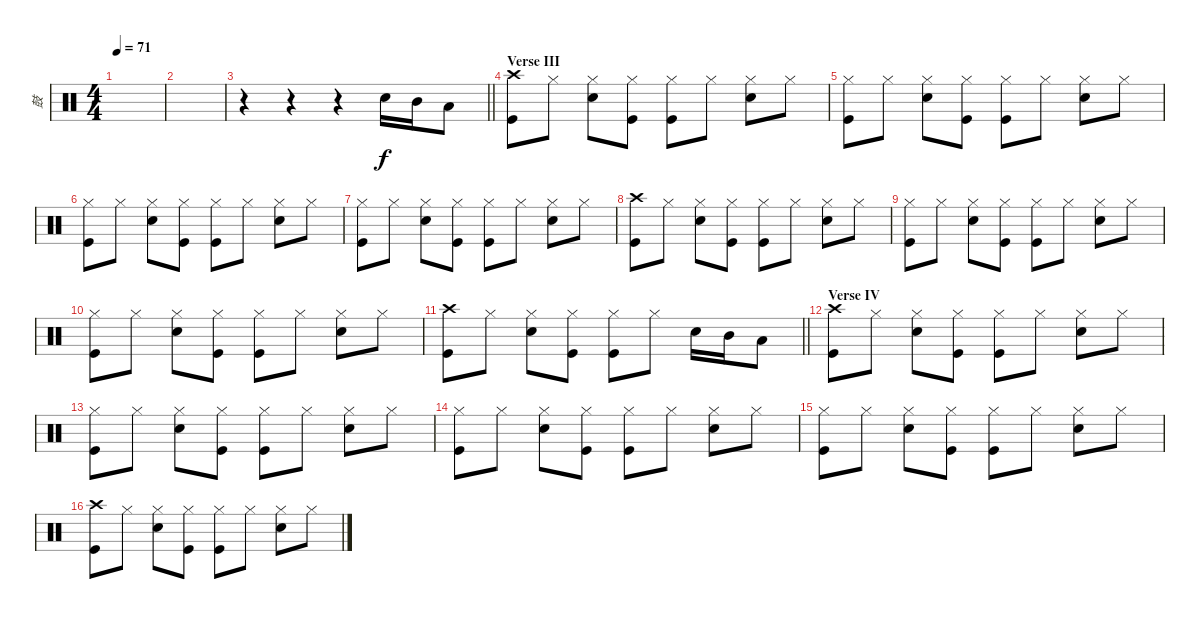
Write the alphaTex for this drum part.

\track ("鼓" "鼓") {instrument percussion}
\staff {score}
\articulation defaults
\ts (4 4)
\tempo 71
\clef neutral
\ks c
|
|
\barLineRight lightlight
r.4 r.4 r.4 "Electric Snare (hit)".16 "Mid Tom (hit)".16 "Low Tom (hit)".8 |
\section ("" "Verse III")
("Crash high (hit)" "Kick (hit)").8 "Hi-Hat (closed)".8 ("Hi-Hat (closed)" "Electric Snare (hit)").8 ("Hi-Hat (closed)" "Kick (hit)").8 ("Hi-Hat (closed)" "Kick (hit)").8 "Hi-Hat (closed)".8 ("Hi-Hat (closed)" "Electric Snare (hit)").8 "Hi-Hat (closed)".8 |
("Hi-Hat (closed)" "Kick (hit)").8 "Hi-Hat (closed)".8 ("Hi-Hat (closed)" "Electric Snare (hit)").8 ("Hi-Hat (closed)" "Kick (hit)").8 ("Hi-Hat (closed)" "Kick (hit)").8 "Hi-Hat (closed)".8 ("Hi-Hat (closed)" "Electric Snare (hit)").8 "Hi-Hat (closed)".8 |
("Hi-Hat (closed)" "Kick (hit)").8 "Hi-Hat (closed)".8 ("Hi-Hat (closed)" "Electric Snare (hit)").8 ("Hi-Hat (closed)" "Kick (hit)").8 ("Hi-Hat (closed)" "Kick (hit)").8 "Hi-Hat (closed)".8 ("Hi-Hat (closed)" "Electric Snare (hit)").8 "Hi-Hat (closed)".8 |
("Hi-Hat (closed)" "Kick (hit)").8 "Hi-Hat (closed)".8 ("Hi-Hat (closed)" "Electric Snare (hit)").8 ("Hi-Hat (closed)" "Kick (hit)").8 ("Hi-Hat (closed)" "Kick (hit)").8 "Hi-Hat (closed)".8 ("Hi-Hat (closed)" "Electric Snare (hit)").8 "Hi-Hat (closed)".8 |
("Crash high (hit)" "Kick (hit)").8 "Hi-Hat (closed)".8 ("Hi-Hat (closed)" "Electric Snare (hit)").8 ("Hi-Hat (closed)" "Kick (hit)").8 ("Hi-Hat (closed)" "Kick (hit)").8 "Hi-Hat (closed)".8 ("Hi-Hat (closed)" "Electric Snare (hit)").8 "Hi-Hat (closed)".8 |
("Hi-Hat (closed)" "Kick (hit)").8 "Hi-Hat (closed)".8 ("Hi-Hat (closed)" "Electric Snare (hit)").8 ("Hi-Hat (closed)" "Kick (hit)").8 ("Hi-Hat (closed)" "Kick (hit)").8 "Hi-Hat (closed)".8 ("Hi-Hat (closed)" "Electric Snare (hit)").8 "Hi-Hat (closed)".8 |
("Hi-Hat (closed)" "Kick (hit)").8 "Hi-Hat (closed)".8 ("Hi-Hat (closed)" "Electric Snare (hit)").8 ("Hi-Hat (closed)" "Kick (hit)").8 ("Hi-Hat (closed)" "Kick (hit)").8 "Hi-Hat (closed)".8 ("Hi-Hat (closed)" "Electric Snare (hit)").8 "Hi-Hat (closed)".8 |
\barLineRight lightlight
("Crash high (hit)" "Kick (hit)").8 "Hi-Hat (closed)".8 ("Hi-Hat (closed)" "Electric Snare (hit)").8 ("Hi-Hat (closed)" "Kick (hit)").8 ("Hi-Hat (closed)" "Kick (hit)").8 "Hi-Hat (closed)".8 "Electric Snare (hit)".16 "Mid Tom (hit)".16 "Low Tom (hit)".8 |
\section ("" "Verse IV")
("Crash high (hit)" "Kick (hit)").8 "Hi-Hat (closed)".8 ("Hi-Hat (closed)" "Electric Snare (hit)").8 ("Hi-Hat (closed)" "Kick (hit)").8 ("Hi-Hat (closed)" "Kick (hit)").8 "Hi-Hat (closed)".8 ("Hi-Hat (closed)" "Electric Snare (hit)").8 "Hi-Hat (closed)".8 |
("Hi-Hat (closed)" "Kick (hit)").8 "Hi-Hat (closed)".8 ("Hi-Hat (closed)" "Electric Snare (hit)").8 ("Hi-Hat (closed)" "Kick (hit)").8 ("Hi-Hat (closed)" "Kick (hit)").8 "Hi-Hat (closed)".8 ("Hi-Hat (closed)" "Electric Snare (hit)").8 "Hi-Hat (closed)".8 |
("Hi-Hat (closed)" "Kick (hit)").8 "Hi-Hat (closed)".8 ("Hi-Hat (closed)" "Electric Snare (hit)").8 ("Hi-Hat (closed)" "Kick (hit)").8 ("Hi-Hat (closed)" "Kick (hit)").8 "Hi-Hat (closed)".8 ("Hi-Hat (closed)" "Electric Snare (hit)").8 "Hi-Hat (closed)".8 |
("Hi-Hat (closed)" "Kick (hit)").8 "Hi-Hat (closed)".8 ("Hi-Hat (closed)" "Electric Snare (hit)").8 ("Hi-Hat (closed)" "Kick (hit)").8 ("Hi-Hat (closed)" "Kick (hit)").8 "Hi-Hat (closed)".8 ("Hi-Hat (closed)" "Electric Snare (hit)").8 "Hi-Hat (closed)".8 |
("Crash high (hit)" "Kick (hit)").8 "Hi-Hat (closed)".8 ("Hi-Hat (closed)" "Electric Snare (hit)").8 ("Hi-Hat (closed)" "Kick (hit)").8 ("Hi-Hat (closed)" "Kick (hit)").8 "Hi-Hat (closed)".8 ("Hi-Hat (closed)" "Electric Snare (hit)").8 "Hi-Hat (closed)".8
